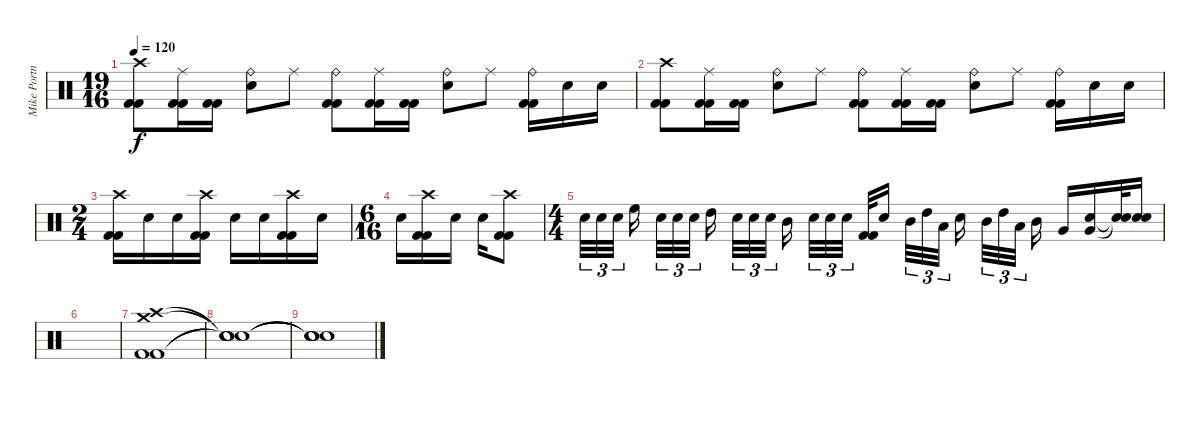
\track ("Mike Portnoy" "Mike Portn") {instrument percussion}
\staff {score}
\articulation defaults
\ts (19 16)
\tempo 120
\clef neutral
\ks c
("Crash high (hit)" "Kick (hit) 2" "Kick (hit) 2").8{dy f} ("Ride (middle)" "Kick (hit) 2" "Kick (hit) 2").16 ("Kick (hit) 2" "Kick (hit) 2").16 ("Ride (bell)" "Snare (hit) 2").8 "Ride (middle)".8 ("Ride (bell)" "Kick (hit) 2" "Kick (hit) 2").8 ("Ride (middle)" "Kick (hit) 2" "Kick (hit) 2").16 ("Kick (hit) 2" "Kick (hit) 2").16 ("Ride (bell)" "Snare (hit) 2").8 "Ride (middle)".8 ("Ride (bell)" "Kick (hit) 2" "Kick (hit) 2").16 "Snare (hit) 2".16 "Snare (hit) 2".16 |
("Crash high (hit)" "Kick (hit) 2" "Kick (hit) 2").8 ("Ride (middle)" "Kick (hit) 2" "Kick (hit) 2").16 ("Kick (hit) 2" "Kick (hit) 2").16 ("Ride (bell)" "Snare (hit) 2").8 "Ride (middle)".8 ("Ride (bell)" "Kick (hit) 2" "Kick (hit) 2").8 ("Ride (middle)" "Kick (hit) 2" "Kick (hit) 2").16 ("Kick (hit) 2" "Kick (hit) 2").16 ("Ride (bell)" "Snare (hit) 2").8 "Ride (middle)".8 ("Ride (bell)" "Kick (hit) 2" "Kick (hit) 2").16 "Snare (hit) 2".16 "Snare (hit) 2".16 |
\ts (2 4)
("Crash high (hit)" "Kick (hit) 2" "Kick (hit) 2").16 "Snare (hit) 2".16 "Snare (hit) 2".16 ("Crash high (hit)" "Kick (hit) 2" "Kick (hit) 2").16 "Snare (hit) 2".16 "Snare (hit) 2".16 ("Crash high (hit)" "Kick (hit) 2" "Kick (hit) 2").16 "Snare (hit) 2".16 |
\ts (6 16)
"Snare (hit) 2".16 ("Crash high (hit)" "Kick (hit) 2" "Kick (hit) 2").16 "Snare (hit) 2".16 "Snare (hit) 2".16 ("Crash high (hit)" "Kick (hit) 2" "Kick (hit) 2").8 |
\ts (4 4)
"Snare (hit) 2".32{tu (3 2)} "Snare (hit) 2".32{tu (3 2)} "Snare (hit) 2".32{tu (3 2)} "High Floor Tom (hit)".16 "Snare (hit) 2".32{tu (3 2)} "Snare (hit) 2".32{tu (3 2)} "Snare (hit) 2".32{tu (3 2)} "High Tom (hit)".16 "Snare (hit) 2".32{tu (3 2)} "Snare (hit) 2".32{tu (3 2)} "Snare (hit) 2".32{tu (3 2)} "Mid Tom (hit)".16 "Snare (hit) 2".32{tu (3 2)} "Snare (hit) 2".32{tu (3 2)} "Snare (hit) 2".32{tu (3 2)} ("Kick (hit) 2" "Kick (hit) 2").32 "Snare (hit) 2".16 "Mid Tom (hit)".32{tu (3 2)} "High Tom (hit)".32{tu (3 2)} "Low Tom (hit)".32{tu (3 2)} "Snare (hit) 2".16 "Mid Tom (hit)".32{tu (3 2)} "High Tom (hit)".32{tu (3 2)} "Low Tom (hit)".32{tu (3 2)} "Mid Tom (hit)".16 "Very Low Tom (hit)".16 ("Snare (hit) 2" "Very Low Tom (hit)").16 ("Snare (hit)"{t} "Snare (hit)"{t}).32 ("Snare (hit)"{t} "Snare (hit)"{t}).16 |
|
("Crash high (hit)" "Crash medium (hit)" "Kick (hit) 2" "Kick (hit) 2").1 |
("Snare (hit)"{t} "Snare (hit)"{t} "Snare (hit)"{t} "Snare (hit)"{t}).1 |
("Snare (hit)"{t} "Snare (hit)"{t} "Snare (hit)"{t} "Snare (hit)"{t}).1
